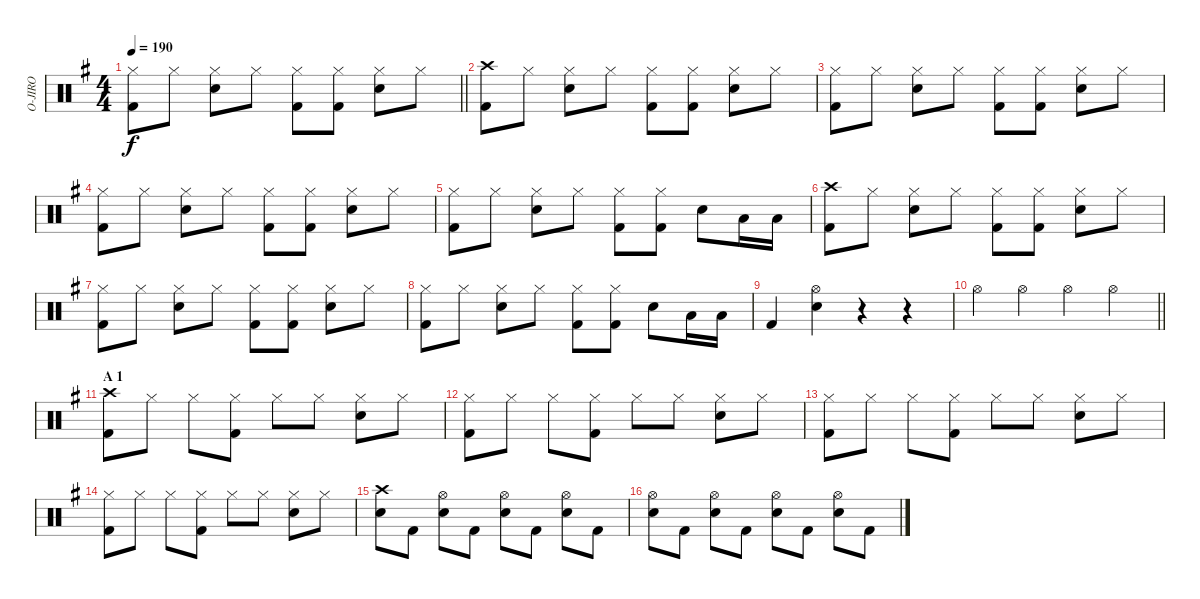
\track ("O-JIRO" "O-JIRO") {instrument percussion}
\staff {score}
\articulation defaults
\ts (4 4)
\tempo 190
\clef neutral
\barLineRight lightlight
\ks g
("Hi-Hat (closed)" "Kick (hit) 2").8{dy f} "Hi-Hat (closed)".8 ("Hi-Hat (closed)" "Snare (hit) 2").8 "Hi-Hat (closed)".8 ("Hi-Hat (closed)" "Kick (hit) 2").8 ("Hi-Hat (closed)" "Kick (hit) 2").8 ("Hi-Hat (closed)" "Snare (hit) 2").8 "Hi-Hat (closed)".8 |
("Crash high (hit)" "Kick (hit) 2").8 "Hi-Hat (closed)".8 ("Hi-Hat (closed)" "Snare (hit) 2").8 "Hi-Hat (closed)".8 ("Hi-Hat (closed)" "Kick (hit) 2").8 ("Hi-Hat (closed)" "Kick (hit) 2").8 ("Hi-Hat (closed)" "Snare (hit) 2").8 "Hi-Hat (closed)".8 |
("Hi-Hat (closed)" "Kick (hit) 2").8 "Hi-Hat (closed)".8 ("Hi-Hat (closed)" "Snare (hit) 2").8 "Hi-Hat (closed)".8 ("Hi-Hat (closed)" "Kick (hit) 2").8 ("Hi-Hat (closed)" "Kick (hit) 2").8 ("Hi-Hat (closed)" "Snare (hit) 2").8 "Hi-Hat (closed)".8 |
("Hi-Hat (closed)" "Kick (hit) 2").8 "Hi-Hat (closed)".8 ("Hi-Hat (closed)" "Snare (hit) 2").8 "Hi-Hat (closed)".8 ("Hi-Hat (closed)" "Kick (hit) 2").8 ("Hi-Hat (closed)" "Kick (hit) 2").8 ("Hi-Hat (closed)" "Snare (hit) 2").8 "Hi-Hat (closed)".8 |
("Hi-Hat (closed)" "Kick (hit) 2").8 "Hi-Hat (closed)".8 ("Hi-Hat (closed)" "Snare (hit) 2").8 "Hi-Hat (closed)".8 ("Hi-Hat (closed)" "Kick (hit) 2").8 ("Hi-Hat (closed)" "Kick (hit) 2").8 "Snare (hit) 2".8 "Low Tom (hit)".16 "Low Tom (hit)".16 |
("Crash high (hit)" "Kick (hit) 2").8 "Hi-Hat (closed)".8 ("Hi-Hat (closed)" "Snare (hit) 2").8 "Hi-Hat (closed)".8 ("Hi-Hat (closed)" "Kick (hit) 2").8 ("Hi-Hat (closed)" "Kick (hit) 2").8 ("Hi-Hat (closed)" "Snare (hit) 2").8 "Hi-Hat (closed)".8 |
("Hi-Hat (closed)" "Kick (hit) 2").8 "Hi-Hat (closed)".8 ("Hi-Hat (closed)" "Snare (hit) 2").8 "Hi-Hat (closed)".8 ("Hi-Hat (closed)" "Kick (hit) 2").8 ("Hi-Hat (closed)" "Kick (hit) 2").8 ("Hi-Hat (closed)" "Snare (hit) 2").8 "Hi-Hat (closed)".8 |
("Hi-Hat (closed)" "Kick (hit) 2").8 "Hi-Hat (closed)".8 ("Hi-Hat (closed)" "Snare (hit) 2").8 "Hi-Hat (closed)".8 ("Hi-Hat (closed)" "Kick (hit) 2").8 ("Hi-Hat (closed)" "Kick (hit) 2").8 "Snare (hit) 2".8 "Low Tom (hit)".16 "Low Tom (hit)".16 |
"Kick (hit) 2".4 ("Hi-Hat (open)" "Snare (hit) 2").4 r.4 r.4 |
\barLineRight lightlight "Hi-Hat (open)".4 "Hi-Hat (open)".4 "Hi-Hat (open)".4 "Hi-Hat (open)".4
|
\section ("" "A 1")
("Crash high (hit)" "Kick (hit) 2").8 "Hi-Hat (closed)".8 "Hi-Hat (closed)".8 ("Hi-Hat (closed)" "Kick (hit) 2").8 "Hi-Hat (closed)".8 "Hi-Hat (closed)".8 ("Hi-Hat (closed)" "Snare (hit) 2").8 "Hi-Hat (closed)".8 |
("Hi-Hat (closed)" "Kick (hit) 2").8 "Hi-Hat (closed)".8 "Hi-Hat (closed)".8 ("Hi-Hat (closed)" "Kick (hit) 2").8 "Hi-Hat (closed)".8 "Hi-Hat (closed)".8 ("Hi-Hat (closed)" "Snare (hit) 2").8 "Hi-Hat (closed)".8 |
("Hi-Hat (closed)" "Kick (hit) 2").8 "Hi-Hat (closed)".8 "Hi-Hat (closed)".8 ("Hi-Hat (closed)" "Kick (hit) 2").8 "Hi-Hat (closed)".8 "Hi-Hat (closed)".8 ("Hi-Hat (closed)" "Snare (hit) 2").8 "Hi-Hat (closed)".8 |
("Hi-Hat (closed)" "Kick (hit) 2").8 "Hi-Hat (closed)".8 "Hi-Hat (closed)".8 ("Hi-Hat (closed)" "Kick (hit) 2").8 "Hi-Hat (closed)".8 "Hi-Hat (closed)".8 ("Hi-Hat (closed)" "Snare (hit) 2").8 "Hi-Hat (closed)".8 |
("Crash high (hit)" "Snare (hit) 2").8 "Kick (hit) 2".8 ("Hi-Hat (open)" "Snare (hit) 2").8 "Kick (hit) 2".8 ("Hi-Hat (open)" "Snare (hit) 2").8 "Kick (hit) 2".8 ("Hi-Hat (open)" "Snare (hit) 2").8 "Kick (hit) 2".8 |
("Hi-Hat (open)" "Snare (hit) 2").8 "Kick (hit) 2".8 ("Hi-Hat (open)" "Snare (hit) 2").8 "Kick (hit) 2".8 ("Hi-Hat (open)" "Snare (hit) 2").8 "Kick (hit) 2".8 ("Hi-Hat (open)" "Snare (hit) 2").8 "Kick (hit) 2".8
